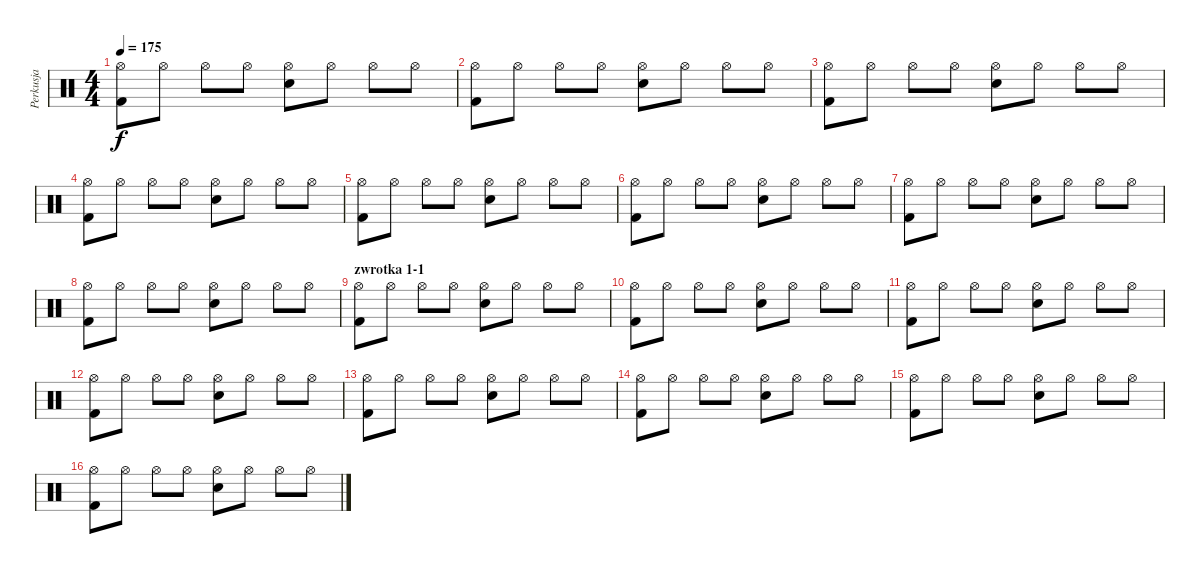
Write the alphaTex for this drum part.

\track ("Perkusja" "Perkusja") {instrument percussion}
\staff {score}
\articulation defaults
\ts (4 4)
\tempo 175
\clef neutral
\ks c
("Kick (hit) 2" "Hi-Hat (open)").8{dy f} "Hi-Hat (open)".8 "Hi-Hat (open)".8 "Hi-Hat (open)".8 ("Snare (hit) 2" "Hi-Hat (open)").8 "Hi-Hat (open)".8 "Hi-Hat (open)".8 "Hi-Hat (open)".8 |
("Kick (hit) 2" "Hi-Hat (open)").8 "Hi-Hat (open)".8 "Hi-Hat (open)".8 "Hi-Hat (open)".8 ("Snare (hit) 2" "Hi-Hat (open)").8 "Hi-Hat (open)".8 "Hi-Hat (open)".8 "Hi-Hat (open)".8 |
("Kick (hit) 2" "Hi-Hat (open)").8 "Hi-Hat (open)".8 "Hi-Hat (open)".8 "Hi-Hat (open)".8 ("Snare (hit) 2" "Hi-Hat (open)").8 "Hi-Hat (open)".8 "Hi-Hat (open)".8 "Hi-Hat (open)".8 |
("Kick (hit) 2" "Hi-Hat (open)").8 "Hi-Hat (open)".8 "Hi-Hat (open)".8 "Hi-Hat (open)".8 ("Snare (hit) 2" "Hi-Hat (open)").8 "Hi-Hat (open)".8 "Hi-Hat (open)".8 "Hi-Hat (open)".8 |
("Kick (hit) 2" "Hi-Hat (open)").8 "Hi-Hat (open)".8 "Hi-Hat (open)".8 "Hi-Hat (open)".8 ("Snare (hit) 2" "Hi-Hat (open)").8 "Hi-Hat (open)".8 "Hi-Hat (open)".8 "Hi-Hat (open)".8 |
("Kick (hit) 2" "Hi-Hat (open)").8 "Hi-Hat (open)".8 "Hi-Hat (open)".8 "Hi-Hat (open)".8 ("Snare (hit) 2" "Hi-Hat (open)").8 "Hi-Hat (open)".8 "Hi-Hat (open)".8 "Hi-Hat (open)".8 |
("Kick (hit) 2" "Hi-Hat (open)").8 "Hi-Hat (open)".8 "Hi-Hat (open)".8 "Hi-Hat (open)".8 ("Snare (hit) 2" "Hi-Hat (open)").8 "Hi-Hat (open)".8 "Hi-Hat (open)".8 "Hi-Hat (open)".8 |
("Kick (hit) 2" "Hi-Hat (open)").8 "Hi-Hat (open)".8 "Hi-Hat (open)".8 "Hi-Hat (open)".8 ("Snare (hit) 2" "Hi-Hat (open)").8 "Hi-Hat (open)".8 "Hi-Hat (open)".8 "Hi-Hat (open)".8 |
\section ("" "zwrotka 1-1")
("Kick (hit) 2" "Hi-Hat (open)").8 "Hi-Hat (open)".8 "Hi-Hat (open)".8 "Hi-Hat (open)".8 ("Snare (hit) 2" "Hi-Hat (open)").8 "Hi-Hat (open)".8 "Hi-Hat (open)".8 "Hi-Hat (open)".8 |
("Kick (hit) 2" "Hi-Hat (open)").8 "Hi-Hat (open)".8 "Hi-Hat (open)".8 "Hi-Hat (open)".8 ("Snare (hit) 2" "Hi-Hat (open)").8 "Hi-Hat (open)".8 "Hi-Hat (open)".8 "Hi-Hat (open)".8 |
("Kick (hit) 2" "Hi-Hat (open)").8 "Hi-Hat (open)".8 "Hi-Hat (open)".8 "Hi-Hat (open)".8 ("Snare (hit) 2" "Hi-Hat (open)").8 "Hi-Hat (open)".8 "Hi-Hat (open)".8 "Hi-Hat (open)".8 |
("Kick (hit) 2" "Hi-Hat (open)").8 "Hi-Hat (open)".8 "Hi-Hat (open)".8 "Hi-Hat (open)".8 ("Snare (hit) 2" "Hi-Hat (open)").8 "Hi-Hat (open)".8 "Hi-Hat (open)".8 "Hi-Hat (open)".8 |
("Kick (hit) 2" "Hi-Hat (open)").8 "Hi-Hat (open)".8 "Hi-Hat (open)".8 "Hi-Hat (open)".8 ("Snare (hit) 2" "Hi-Hat (open)").8 "Hi-Hat (open)".8 "Hi-Hat (open)".8 "Hi-Hat (open)".8 |
("Kick (hit) 2" "Hi-Hat (open)").8 "Hi-Hat (open)".8 "Hi-Hat (open)".8 "Hi-Hat (open)".8 ("Snare (hit) 2" "Hi-Hat (open)").8 "Hi-Hat (open)".8 "Hi-Hat (open)".8 "Hi-Hat (open)".8 |
("Kick (hit) 2" "Hi-Hat (open)").8 "Hi-Hat (open)".8 "Hi-Hat (open)".8 "Hi-Hat (open)".8 ("Snare (hit) 2" "Hi-Hat (open)").8 "Hi-Hat (open)".8 "Hi-Hat (open)".8 "Hi-Hat (open)".8 |
("Kick (hit) 2" "Hi-Hat (open)").8 "Hi-Hat (open)".8 "Hi-Hat (open)".8 "Hi-Hat (open)".8 ("Snare (hit) 2" "Hi-Hat (open)").8 "Hi-Hat (open)".8 "Hi-Hat (open)".8 "Hi-Hat (open)".8
